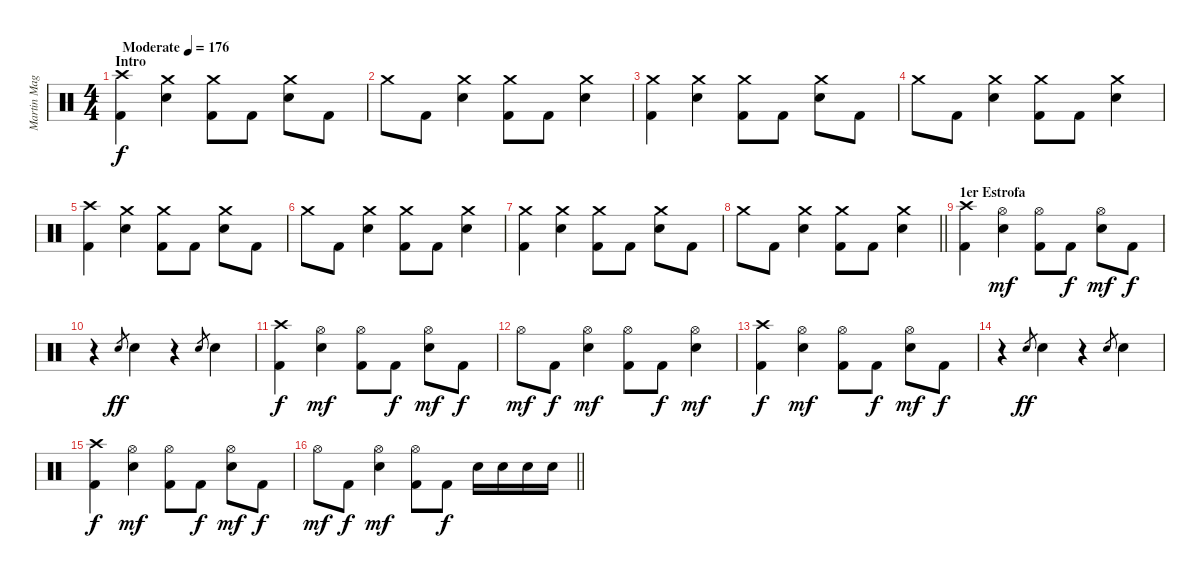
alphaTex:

\track ("Martin Magliano" "Martin Mag") {instrument percussion}
\staff {score}
\articulation defaults
\ts (4 4)
\section ("" "Intro")
\tempo (176 "Moderate")
\clef neutral
\ks c
("Crash high (hit)" "Kick (hit) 2").4{dy f} ("Crash medium (hit)" "Snare (hit) 2").4 ("Crash medium (hit)" "Kick (hit) 2").8 "Kick (hit) 2".8 ("Crash medium (hit)" "Snare (hit) 2").8 "Kick (hit) 2".8 |
"Crash medium (hit)".8 "Kick (hit) 2".8 ("Crash medium (hit)" "Snare (hit) 2").4 ("Crash medium (hit)" "Kick (hit) 2").8 "Kick (hit) 2".8 ("Crash medium (hit)" "Snare (hit) 2").4 |
("Crash medium (hit)" "Kick (hit) 2").4 ("Crash medium (hit)" "Snare (hit) 2").4 ("Crash medium (hit)" "Kick (hit) 2").8 "Kick (hit) 2".8 ("Crash medium (hit)" "Snare (hit) 2").8 "Kick (hit) 2".8 |
"Crash medium (hit)".8 "Kick (hit) 2".8 ("Crash medium (hit)" "Snare (hit) 2").4 ("Crash medium (hit)" "Kick (hit) 2").8 "Kick (hit) 2".8 ("Crash medium (hit)" "Snare (hit) 2").4 |
("Crash high (hit)" "Kick (hit) 2").4 ("Crash medium (hit)" "Snare (hit) 2").4 ("Crash medium (hit)" "Kick (hit) 2").8 "Kick (hit) 2".8 ("Crash medium (hit)" "Snare (hit) 2").8 "Kick (hit) 2".8 |
"Crash medium (hit)".8 "Kick (hit) 2".8 ("Crash medium (hit)" "Snare (hit) 2").4 ("Crash medium (hit)" "Kick (hit) 2").8 "Kick (hit) 2".8 ("Crash medium (hit)" "Snare (hit) 2").4 |
("Crash medium (hit)" "Kick (hit) 2").4 ("Crash medium (hit)" "Snare (hit) 2").4 ("Crash medium (hit)" "Kick (hit) 2").8 "Kick (hit) 2".8 ("Crash medium (hit)" "Snare (hit) 2").8 "Kick (hit) 2".8 |
\barLineRight lightlight "Crash medium (hit)".8 "Kick (hit) 2".8
("Crash medium (hit)" "Snare (hit) 2").4 ("Crash medium (hit)" "Kick (hit) 2").8 "Kick (hit) 2".8 ("Crash medium (hit)" "Snare (hit) 2").4 |
\section ("" "1er Estrofa")
("Crash high (hit)" "Kick (hit) 2").4 ("Hi-Hat (open)" "Snare (hit) 2").4{dy mf} ("Hi-Hat (open)" "Kick (hit) 2").8 "Kick (hit) 2".8{dy f} ("Hi-Hat (open)" "Snare (hit) 2").8{dy mf} "Kick (hit) 2".8{dy f} |
r.4 "Snare (hit) 2".8{gr dy ff} "Snare (hit) 2".4 r.4 "Snare (hit) 2".8{gr} "Snare (hit) 2".4 |
("Crash high (hit)" "Kick (hit) 2").4{dy f} ("Hi-Hat (open)" "Snare (hit) 2").4{dy mf} ("Hi-Hat (open)" "Kick (hit) 2").8 "Kick (hit) 2".8{dy f} ("Hi-Hat (open)" "Snare (hit) 2").8{dy mf} "Kick (hit) 2".8{dy f} |
"Hi-Hat (open)".8{dy mf} "Kick (hit) 2".8{dy f} ("Hi-Hat (open)" "Snare (hit) 2").4{dy mf} ("Hi-Hat (open)" "Kick (hit) 2").8 "Kick (hit) 2".8{dy f} ("Hi-Hat (open)" "Snare (hit) 2").4{dy mf} |
("Crash high (hit)" "Kick (hit) 2").4{dy f} ("Hi-Hat (open)" "Snare (hit) 2").4{dy mf} ("Hi-Hat (open)" "Kick (hit) 2").8 "Kick (hit) 2".8{dy f} ("Hi-Hat (open)" "Snare (hit) 2").8{dy mf} "Kick (hit) 2".8{dy f} |
r.4 "Snare (hit) 2".8{gr dy ff} "Snare (hit) 2".4 r.4 "Snare (hit) 2".8{gr} "Snare (hit) 2".4 |
("Crash high (hit)" "Kick (hit) 2").4{dy f} ("Hi-Hat (open)" "Snare (hit) 2").4{dy mf} ("Hi-Hat (open)" "Kick (hit) 2").8 "Kick (hit) 2".8{dy f} ("Hi-Hat (open)" "Snare (hit) 2").8{dy mf} "Kick (hit) 2".8{dy f} |
\barLineRight lightlight "Hi-Hat (open)".8{dy mf} "Kick (hit) 2".8{dy f}
("Hi-Hat (open)" "Snare (hit) 2").4{dy mf} ("Hi-Hat (open)" "Kick (hit) 2").8 "Kick (hit) 2".8{dy f} "Snare (hit) 2".16 "Snare (hit) 2".16 "Snare (hit) 2".16 "Snare (hit) 2".16
